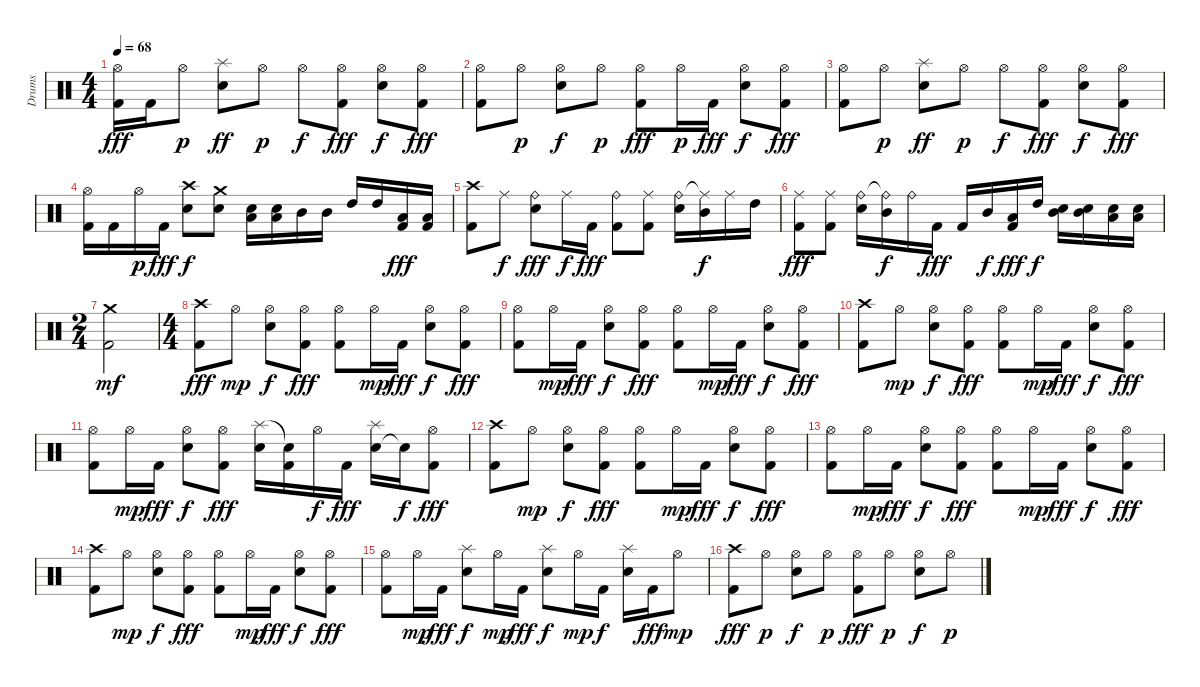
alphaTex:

\track ("Drums" "Drums") {instrument percussion}
\staff {score}
\articulation defaults
\ts (4 4)
\tempo 68
\clef neutral
\ks c
("Hi-Hat (open)" "Kick (hit) 2").16{dy fff} "Kick (hit) 2".16 "Hi-Hat (open)".8{dy p} ("Snare (hit) 2" "Splash (hit)").8{dy ff} "Hi-Hat (open)".8{dy p} "Hi-Hat (open)".8{dy f} ("Hi-Hat (open)" "Kick (hit) 2").8{dy fff} ("Hi-Hat (open)" "Snare (hit) 2").8{dy f} ("Hi-Hat (open)" "Kick (hit) 2").8{dy fff} |
("Hi-Hat (open)" "Kick (hit) 2").8 "Hi-Hat (open)".8{dy p} ("Hi-Hat (open)" "Snare (hit) 2").8{dy f} "Hi-Hat (open)".8{dy p} ("Hi-Hat (open)" "Kick (hit) 2").8{dy fff} "Hi-Hat (open)".16{dy p} "Kick (hit) 2".16{dy fff} ("Hi-Hat (open)" "Snare (hit) 2").8{dy f} ("Hi-Hat (open)" "Kick (hit) 2").8{dy fff} |
("Hi-Hat (open)" "Kick (hit) 2").8 "Hi-Hat (open)".8{dy p} ("Snare (hit) 2" "Splash (hit)").8{dy ff} "Hi-Hat (open)".8{dy p} "Hi-Hat (open)".8{dy f} ("Hi-Hat (open)" "Kick (hit) 2").8{dy fff} ("Hi-Hat (open)" "Snare (hit) 2").8{dy f} ("Hi-Hat (open)" "Kick (hit) 2").8{dy fff} |
("Hi-Hat (open)" "Kick (hit) 2").16 "Kick (hit) 2".16 "Hi-Hat (open)".16{dy p} "Kick (hit) 2".16{dy fff} ("Snare (hit) 2" "Crash high (hit)").8{dy f} ("Snare (hit) 2" "Crash medium (hit)").8 ("Snare (hit) 2" "Low Tom (hit)").16 ("Snare (hit) 2" "Low Tom (hit)").16 "Mid Tom (hit)".16 "Mid Tom (hit)".16 "High Tom (hit)".16 "High Tom (hit)".16 ("Kick (hit) 2" "Low Tom (hit)").16{dy fff} ("Kick (hit) 2" "Low Tom (hit)").16 |
("Kick (hit) 2" "Crash high (hit)").8 "Ride (middle)".8{dy f} ("Ride (bell)" "Snare (hit) 2").8{dy fff} "Ride (middle)".16{dy f} "Kick (hit) 2".16{dy fff} ("Ride (bell)" "Kick (hit) 2").8 ("Ride (middle)" "Kick (hit) 2").8 ("Ride (bell)" "Snare (hit) 2").16 ("Ride (middle)"{t} "Mid Tom (hit)").16{dy f} "Ride (middle)".16 "High Tom (hit)".16 |
("Ride (middle)" "Kick (hit) 2").8{dy fff} ("Ride (middle)" "Kick (hit) 2").8 ("Ride (bell)" "Snare (hit) 2").16 ("Ride (bell)"{t} "Mid Tom (hit)").16{dy f} "Ride (bell)".16 "Kick (hit) 2".16{dy fff} "Kick (hit) 2".16 "Mid Tom (hit)".16{dy f} ("Kick (hit) 2" "Low Tom (hit)").16{dy fff} "High Tom (hit)".16{dy f} ("Snare (hit) 2" "Mid Tom (hit)").16 ("Snare (hit) 2" "Mid Tom (hit)").16 ("Snare (hit) 2" "Low Tom (hit)").16 ("Snare (hit) 2" "Low Tom (hit)").16 |
\ts (2 4)
("Kick (hit) 2" "Crash medium (hit)").2{dy mf} |
\ts (4 4)
("Kick (hit) 2" "Crash high (hit)").8{dy fff} "Hi-Hat (open)".8{dy mp} ("Hi-Hat (open)" "Snare (hit) 2").8{dy f} ("Hi-Hat (open)" "Kick (hit) 2").8{dy fff} ("Hi-Hat (open)" "Kick (hit) 2").8 "Hi-Hat (open)".16{dy mp} "Kick (hit) 2".16{dy fff} ("Hi-Hat (open)" "Snare (hit) 2").8{dy f} ("Hi-Hat (open)" "Kick (hit) 2").8{dy fff} |
("Hi-Hat (open)" "Kick (hit) 2").8 "Hi-Hat (open)".16{dy mp} "Kick (hit) 2".16{dy fff} ("Hi-Hat (open)" "Snare (hit) 2").8{dy f} ("Hi-Hat (open)" "Kick (hit) 2").8{dy fff} ("Hi-Hat (open)" "Kick (hit) 2").8 "Hi-Hat (open)".16{dy mp} "Kick (hit) 2".16{dy fff} ("Hi-Hat (open)" "Snare (hit) 2").8{dy f} ("Hi-Hat (open)" "Kick (hit) 2").8{dy fff} |
("Kick (hit) 2" "Crash high (hit)").8 "Hi-Hat (open)".8{dy mp} ("Hi-Hat (open)" "Snare (hit) 2").8{dy f} ("Hi-Hat (open)" "Kick (hit) 2").8{dy fff} ("Hi-Hat (open)" "Kick (hit) 2").8 "Hi-Hat (open)".16{dy mp} "Kick (hit) 2".16{dy fff} ("Hi-Hat (open)" "Snare (hit) 2").8{dy f} ("Hi-Hat (open)" "Kick (hit) 2").8{dy fff} |
("Hi-Hat (open)" "Kick (hit) 2").8 "Hi-Hat (open)".16{dy mp} "Kick (hit) 2".16{dy fff} ("Hi-Hat (open)" "Snare (hit) 2").8{dy f} ("Hi-Hat (open)" "Kick (hit) 2").8{dy fff} ("Snare (hit) 2" "Splash (hit)").16 ("Kick (hit) 2" "Snare (hit)"{t}).16 "Hi-Hat (open)".16{dy f} "Kick (hit) 2".16{dy fff} ("Snare (hit) 2" "Splash (hit)").16 "Snare (hit)"{t}.16{dy f} ("Hi-Hat (open)" "Kick (hit) 2").8{dy fff} |
("Kick (hit) 2" "Crash high (hit)").8 "Hi-Hat (open)".8{dy mp} ("Hi-Hat (open)" "Snare (hit) 2").8{dy f} ("Hi-Hat (open)" "Kick (hit) 2").8{dy fff} ("Hi-Hat (open)" "Kick (hit) 2").8 "Hi-Hat (open)".16{dy mp} "Kick (hit) 2".16{dy fff} ("Hi-Hat (open)" "Snare (hit) 2").8{dy f} ("Hi-Hat (open)" "Kick (hit) 2").8{dy fff} |
("Hi-Hat (open)" "Kick (hit) 2").8 "Hi-Hat (open)".16{dy mp} "Kick (hit) 2".16{dy fff} ("Hi-Hat (open)" "Snare (hit) 2").8{dy f} ("Hi-Hat (open)" "Kick (hit) 2").8{dy fff} ("Hi-Hat (open)" "Kick (hit) 2").8 "Hi-Hat (open)".16{dy mp} "Kick (hit) 2".16{dy fff} ("Hi-Hat (open)" "Snare (hit) 2").8{dy f} ("Hi-Hat (open)" "Kick (hit) 2").8{dy fff} |
("Kick (hit) 2" "Crash high (hit)").8 "Hi-Hat (open)".8{dy mp} ("Hi-Hat (open)" "Snare (hit) 2").8{dy f} ("Hi-Hat (open)" "Kick (hit) 2").8{dy fff} ("Hi-Hat (open)" "Kick (hit) 2").8 "Hi-Hat (open)".16{dy mp} "Kick (hit) 2".16{dy fff} ("Hi-Hat (open)" "Snare (hit) 2").8{dy f} ("Hi-Hat (open)" "Kick (hit) 2").8{dy fff} |
("Hi-Hat (open)" "Kick (hit) 2").8 "Hi-Hat (open)".16{dy mp} "Kick (hit) 2".16{dy fff} ("Snare (hit) 2" "Splash (hit)").8{dy f} "Hi-Hat (open)".16{dy mp} "Kick (hit) 2".16{dy fff} ("Snare (hit) 2" "Splash (hit)").8{dy f} "Hi-Hat (open)".16{dy mp} "Kick (hit) 2".16{dy f} ("Snare (hit) 2" "Splash (hit)").16 "Kick (hit) 2".16{dy fff} "Hi-Hat (open)".8{dy mp} |
("Kick (hit) 2" "Crash high (hit)").8{dy fff} "Hi-Hat (open)".8{dy p} ("Hi-Hat (open)" "Snare (hit) 2").8{dy f} "Hi-Hat (open)".8{dy p} ("Hi-Hat (open)" "Kick (hit) 2").8{dy fff} "Hi-Hat (open)".8{dy p} ("Hi-Hat (open)" "Snare (hit) 2").8{dy f} "Hi-Hat (open)".8{dy p}
